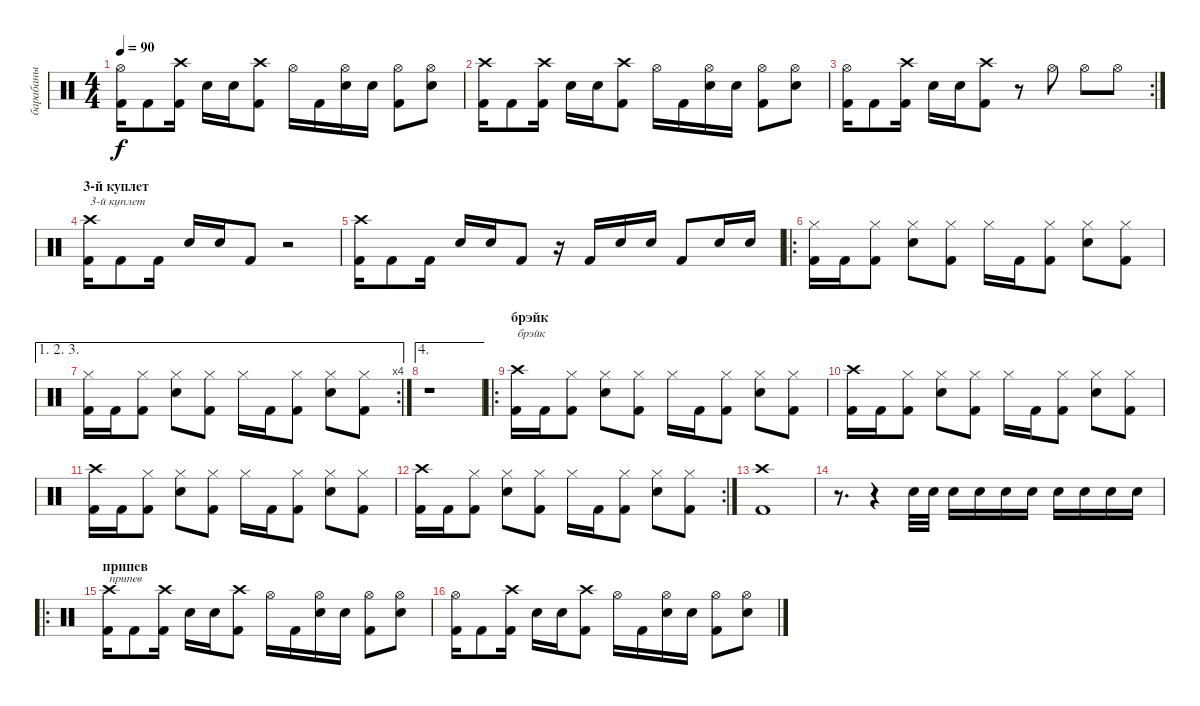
\track ("барабаны" "барабаны") {instrument percussion}
\staff {score}
\articulation defaults
\ts (4 4)
\tempo 90
\clef neutral
\ks c
("Hi-Hat (open)" "Kick (hit) 2").16{dy f} "Kick (hit) 2".8 ("Crash high (hit)" "Kick (hit) 2").16 "Snare (hit) 2".16 "Snare (hit) 2".16 ("Crash high (hit)" "Kick (hit) 2").8 "Hi-Hat (open)".16 "Kick (hit) 2".16 ("Hi-Hat (open)" "Snare (hit) 2").16 "Snare (hit) 2".16 ("Hi-Hat (open)" "Kick (hit) 2").8 ("Hi-Hat (open)" "Snare (hit) 2").8 |
("Crash high (hit)" "Kick (hit) 2").16 "Kick (hit) 2".8 ("Crash high (hit)" "Kick (hit) 2").16 "Snare (hit) 2".16 "Snare (hit) 2".16 ("Crash high (hit)" "Kick (hit) 2").8 "Hi-Hat (open)".16 "Kick (hit) 2".16 ("Hi-Hat (open)" "Snare (hit) 2").16 "Snare (hit) 2".16 ("Hi-Hat (open)" "Kick (hit) 2").8 ("Hi-Hat (open)" "Snare (hit) 2").8 |
\rc 2
("Hi-Hat (open)" "Kick (hit) 2").16 "Kick (hit) 2".8 ("Crash high (hit)" "Kick (hit) 2").16 "Snare (hit) 2".16 "Snare (hit) 2".16 ("Crash high (hit)" "Kick (hit) 2").8 r.8 "Hi-Hat (open)".8 "Hi-Hat (open)".8 "Hi-Hat (open)".8 |
\section ("" "3-й куплет")
("Crash high (hit)" "Kick (hit) 2").16{txt "3-й куплет"} "Kick (hit) 2".8 "Kick (hit) 2".16 "Snare (hit) 2".16 "Snare (hit) 2".16 "Kick (hit) 2".8 r.2 |
("Crash high (hit)" "Kick (hit) 2").16 "Kick (hit) 2".8 "Kick (hit) 2".16 "Snare (hit) 2".16 "Snare (hit) 2".16 "Kick (hit) 2".8 r.16 "Kick (hit) 2".16 "Snare (hit) 2".16 "Snare (hit) 2".16 "Kick (hit) 2".8 "Snare (hit) 2".16 "Snare (hit) 2".16 |
\ro
("Hi-Hat (closed)" "Kick (hit) 2").16 "Kick (hit) 2".16 ("Hi-Hat (closed)" "Kick (hit) 2").8 ("Hi-Hat (closed)" "Snare (hit) 2").8 ("Hi-Hat (closed)" "Kick (hit) 2").8 "Hi-Hat (closed)".16 "Kick (hit) 2".16 ("Hi-Hat (closed)" "Kick (hit) 2").8 ("Hi-Hat (closed)" "Snare (hit) 2").8 ("Hi-Hat (closed)" "Kick (hit) 2").8 |
\ae (1 2 3)
\rc 4
("Hi-Hat (closed)" "Kick (hit) 2").16 "Kick (hit) 2".16 ("Hi-Hat (closed)" "Kick (hit) 2").8 ("Hi-Hat (closed)" "Snare (hit) 2").8 ("Hi-Hat (closed)" "Kick (hit) 2").8 "Hi-Hat (closed)".16 "Kick (hit) 2".16 ("Hi-Hat (closed)" "Kick (hit) 2").8 ("Hi-Hat (closed)" "Snare (hit) 2").8 ("Hi-Hat (closed)" "Kick (hit) 2").8 |
\ae 4
r.1 |
\ro
\section ("" "брэйк")
("Crash high (hit)" "Kick (hit) 2").16{txt "брэйк"} "Kick (hit) 2".16 ("Hi-Hat (closed)" "Kick (hit) 2").8 ("Hi-Hat (closed)" "Snare (hit) 2").8 ("Hi-Hat (closed)" "Kick (hit) 2").8 "Hi-Hat (closed)".16 "Kick (hit) 2".16 ("Hi-Hat (closed)" "Kick (hit) 2").8 ("Hi-Hat (closed)" "Snare (hit) 2").8 ("Hi-Hat (closed)" "Kick (hit) 2").8 |
("Crash high (hit)" "Kick (hit) 2").16 "Kick (hit) 2".16 ("Hi-Hat (closed)" "Kick (hit) 2").8 ("Hi-Hat (closed)" "Snare (hit) 2").8 ("Hi-Hat (closed)" "Kick (hit) 2").8 "Hi-Hat (closed)".16 "Kick (hit) 2".16 ("Hi-Hat (closed)" "Kick (hit) 2").8 ("Hi-Hat (closed)" "Snare (hit) 2").8 ("Hi-Hat (closed)" "Kick (hit) 2").8 |
("Crash high (hit)" "Kick (hit) 2").16 "Kick (hit) 2".16 ("Hi-Hat (closed)" "Kick (hit) 2").8 ("Hi-Hat (closed)" "Snare (hit) 2").8 ("Hi-Hat (closed)" "Kick (hit) 2").8 "Hi-Hat (closed)".16 "Kick (hit) 2".16 ("Hi-Hat (closed)" "Kick (hit) 2").8 ("Hi-Hat (closed)" "Snare (hit) 2").8 ("Hi-Hat (closed)" "Kick (hit) 2").8 |
\rc 2
("Crash high (hit)" "Kick (hit) 2").16 "Kick (hit) 2".16 ("Hi-Hat (closed)" "Kick (hit) 2").8 ("Hi-Hat (closed)" "Snare (hit) 2").8 ("Hi-Hat (closed)" "Kick (hit) 2").8 "Hi-Hat (closed)".16 "Kick (hit) 2".16 ("Hi-Hat (closed)" "Kick (hit) 2").8 ("Hi-Hat (closed)" "Snare (hit) 2").8 ("Hi-Hat (closed)" "Kick (hit) 2").8 |
("Crash high (hit)" "Kick (hit) 2").1 |
r.8{d} r.4 "Snare (hit) 2".32 "Snare (hit) 2".32 "Snare (hit) 2".16 "Snare (hit) 2".16 "Snare (hit) 2".16 "Snare (hit) 2".16 "Snare (hit) 2".16 "Snare (hit) 2".16 "Snare (hit) 2".16 "Snare (hit) 2".16 |
\ro
\section ("" "припев")
("Crash high (hit)" "Kick (hit) 2").16{txt "припев"} "Kick (hit) 2".8 ("Crash high (hit)" "Kick (hit) 2").16 "Snare (hit) 2".16 "Snare (hit) 2".16 ("Crash high (hit)" "Kick (hit) 2").8 "Hi-Hat (open)".16 "Kick (hit) 2".16 ("Hi-Hat (open)" "Snare (hit) 2").16 "Snare (hit) 2".16 ("Hi-Hat (open)" "Kick (hit) 2").8 ("Hi-Hat (open)" "Snare (hit) 2").8 |
("Hi-Hat (open)" "Kick (hit) 2").16 "Kick (hit) 2".8 ("Crash high (hit)" "Kick (hit) 2").16 "Snare (hit) 2".16 "Snare (hit) 2".16 ("Crash high (hit)" "Kick (hit) 2").8 "Hi-Hat (open)".16 "Kick (hit) 2".16 ("Hi-Hat (open)" "Snare (hit) 2").16 "Snare (hit) 2".16 ("Hi-Hat (open)" "Kick (hit) 2").8 ("Hi-Hat (open)" "Snare (hit) 2").8
